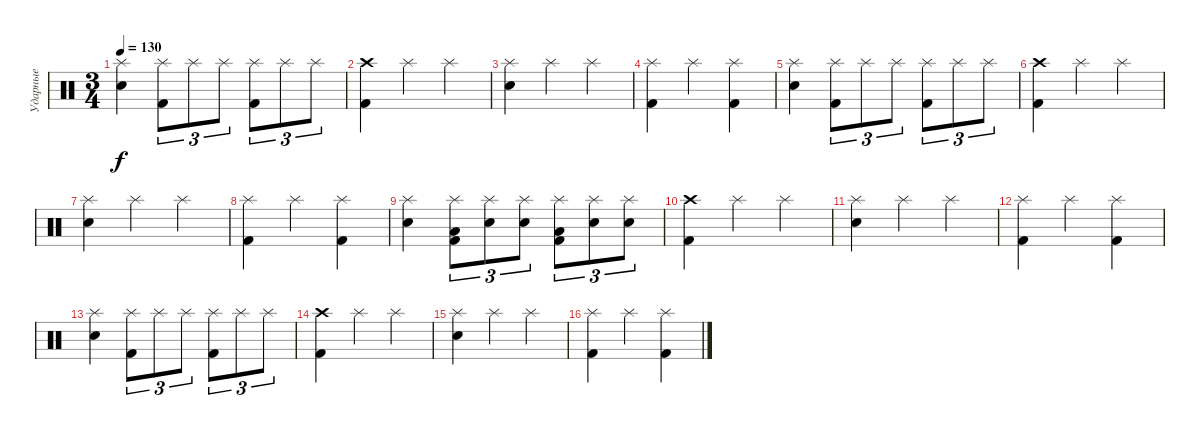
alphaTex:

\track ("Ударные" "Ударные") {instrument percussion}
\staff {score}
\articulation defaults
\ts (3 4)
\tempo 130
\clef neutral
\ks c
("Splash (hit)" "Electric Snare (hit)").4{dy f} ("Splash (hit)" "Kick (hit) 2").8{tu (3 2)} "Splash (hit)".8{tu (3 2)} "Splash (hit)".8{tu (3 2)} ("Splash (hit)" "Kick (hit) 2").8{tu (3 2)} "Splash (hit)".8{tu (3 2)} "Splash (hit)".8{tu (3 2)} |
("Crash high (hit)" "Kick (hit) 2").4 "Splash (hit)".4 "Splash (hit)".4 |
("Splash (hit)" "Electric Snare (hit)").4 "Splash (hit)".4 "Splash (hit)".4 |
("Splash (hit)" "Kick (hit) 2").4 "Splash (hit)".4 ("Splash (hit)" "Kick (hit) 2").4 |
("Splash (hit)" "Electric Snare (hit)").4 ("Splash (hit)" "Kick (hit) 2").8{tu (3 2)} "Splash (hit)".8{tu (3 2)} "Splash (hit)".8{tu (3 2)} ("Splash (hit)" "Kick (hit) 2").8{tu (3 2)} "Splash (hit)".8{tu (3 2)} "Splash (hit)".8{tu (3 2)} |
("Crash high (hit)" "Kick (hit) 2").4 "Splash (hit)".4 "Splash (hit)".4 |
("Splash (hit)" "Electric Snare (hit)").4 "Splash (hit)".4 "Splash (hit)".4 |
("Splash (hit)" "Kick (hit) 2").4 "Splash (hit)".4 ("Splash (hit)" "Kick (hit) 2").4 |
("Splash (hit)" "Electric Snare (hit)").4 ("Splash (hit)" "Low Tom (hit)" "Kick (hit) 2").8{tu (3 2)} ("Splash (hit)" "Electric Snare (hit)").8{tu (3 2)} ("Splash (hit)" "Electric Snare (hit)").8{tu (3 2)} ("Splash (hit)" "Low Tom (hit)" "Kick (hit) 2").8{tu (3 2)} ("Splash (hit)" "Electric Snare (hit)").8{tu (3 2)} ("Splash (hit)" "Electric Snare (hit)").8{tu (3 2)} |
("Crash high (hit)" "Kick (hit) 2").4 "Splash (hit)".4 "Splash (hit)".4 |
("Splash (hit)" "Electric Snare (hit)").4 "Splash (hit)".4 "Splash (hit)".4 |
("Splash (hit)" "Kick (hit) 2").4 "Splash (hit)".4 ("Splash (hit)" "Kick (hit) 2").4 |
("Splash (hit)" "Electric Snare (hit)").4 ("Splash (hit)" "Kick (hit) 2").8{tu (3 2)} "Splash (hit)".8{tu (3 2)} "Splash (hit)".8{tu (3 2)} ("Splash (hit)" "Kick (hit) 2").8{tu (3 2)} "Splash (hit)".8{tu (3 2)} "Splash (hit)".8{tu (3 2)} |
("Crash high (hit)" "Kick (hit) 2").4 "Splash (hit)".4 "Splash (hit)".4 |
("Splash (hit)" "Electric Snare (hit)").4 "Splash (hit)".4 "Splash (hit)".4 |
("Splash (hit)" "Kick (hit) 2").4 "Splash (hit)".4 ("Splash (hit)" "Kick (hit) 2").4
